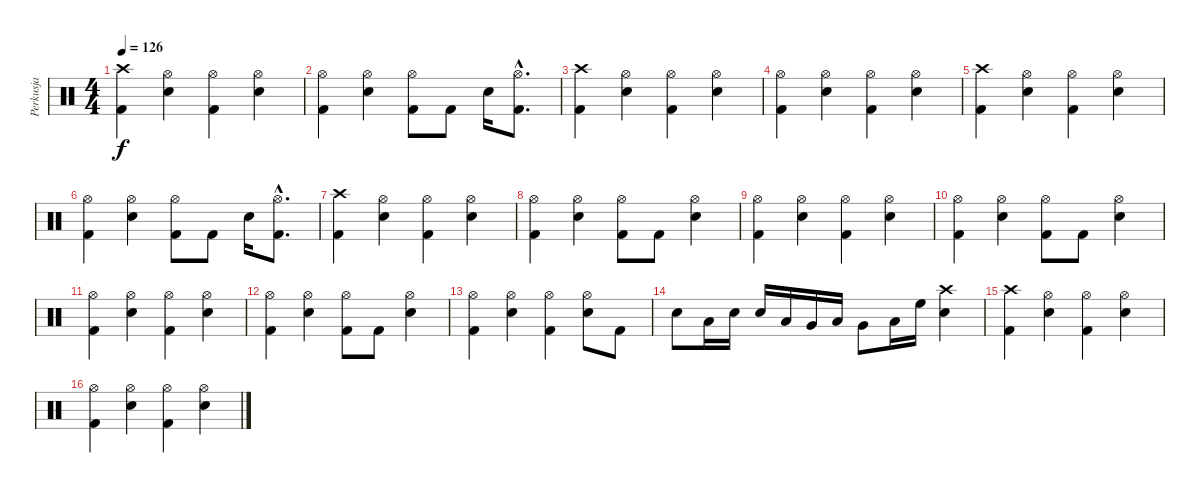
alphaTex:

\track ("Perkusja" "Perkusja") {instrument percussion}
\staff {score}
\articulation defaults
\ts (4 4)
\tempo 126
\clef neutral
\ks c
("Crash high (hit)" "Kick (hit) 2").4{dy f} ("Hi-Hat (open)" "Electric Snare (hit)").4 ("Hi-Hat (open)" "Kick (hit) 2").4 ("Hi-Hat (open)" "Electric Snare (hit)").4 |
("Hi-Hat (open)" "Kick (hit) 2").4 ("Hi-Hat (open)" "Electric Snare (hit)").4 ("Hi-Hat (open)" "Kick (hit) 2").8 "Kick (hit) 2".8 "Electric Snare (hit)".16 ("Hi-Hat (open)"{hac} "Kick (hit) 2"{hac}).8{d} |
("Crash high (hit)" "Kick (hit) 2").4 ("Hi-Hat (open)" "Electric Snare (hit)").4 ("Hi-Hat (open)" "Kick (hit) 2").4 ("Hi-Hat (open)" "Electric Snare (hit)").4 |
("Hi-Hat (open)" "Kick (hit) 2").4 ("Hi-Hat (open)" "Electric Snare (hit)").4 ("Hi-Hat (open)" "Kick (hit) 2").4 ("Hi-Hat (open)" "Electric Snare (hit)").4 |
("Crash high (hit)" "Kick (hit) 2").4 ("Hi-Hat (open)" "Electric Snare (hit)").4 ("Hi-Hat (open)" "Kick (hit) 2").4 ("Hi-Hat (open)" "Electric Snare (hit)").4 |
("Hi-Hat (open)" "Kick (hit) 2").4 ("Hi-Hat (open)" "Electric Snare (hit)").4 ("Hi-Hat (open)" "Kick (hit) 2").8 "Kick (hit) 2".8 "Electric Snare (hit)".16 ("Hi-Hat (open)"{hac} "Kick (hit) 2"{hac}).8{d} |
("Crash high (hit)" "Kick (hit) 2").4 ("Hi-Hat (open)" "Electric Snare (hit)").4 ("Hi-Hat (open)" "Kick (hit) 2").4 ("Hi-Hat (open)" "Electric Snare (hit)").4 |
("Hi-Hat (open)" "Kick (hit) 2").4 ("Hi-Hat (open)" "Electric Snare (hit)").4 ("Hi-Hat (open)" "Kick (hit) 2").8 "Kick (hit) 2".8 ("Hi-Hat (open)" "Electric Snare (hit)").4 |
("Hi-Hat (open)" "Kick (hit) 2").4 ("Hi-Hat (open)" "Electric Snare (hit)").4 ("Hi-Hat (open)" "Kick (hit) 2").4 ("Hi-Hat (open)" "Electric Snare (hit)").4 |
("Hi-Hat (open)" "Kick (hit) 2").4 ("Hi-Hat (open)" "Electric Snare (hit)").4 ("Hi-Hat (open)" "Kick (hit) 2").8 "Kick (hit) 2".8 ("Hi-Hat (open)" "Electric Snare (hit)").4 |
("Hi-Hat (open)" "Kick (hit) 2").4 ("Hi-Hat (open)" "Electric Snare (hit)").4 ("Hi-Hat (open)" "Kick (hit) 2").4 ("Hi-Hat (open)" "Electric Snare (hit)").4 |
("Hi-Hat (open)" "Kick (hit) 2").4 ("Hi-Hat (open)" "Electric Snare (hit)").4 ("Hi-Hat (open)" "Kick (hit) 2").8 "Kick (hit) 2".8 ("Hi-Hat (open)" "Electric Snare (hit)").4 |
("Hi-Hat (open)" "Kick (hit) 2").4 ("Hi-Hat (open)" "Electric Snare (hit)").4 ("Hi-Hat (open)" "Kick (hit) 2").4 ("Hi-Hat (open)" "Electric Snare (hit)").8 "Kick (hit) 2".8 |
"Electric Snare (hit)".8 "Low Tom (hit)".16 "Electric Snare (hit)".16 "Electric Snare (hit)".16 "Low Tom (hit)".16 "Very Low Tom (hit)".16 "Low Floor Tom (hit)".16 "Very Low Tom (hit)".8 "Low Tom (hit)".16 "High Floor Tom (hit)".16 ("Crash high (hit)" "Electric Snare (hit)").4 |
("Crash high (hit)" "Kick (hit) 2").4 ("Hi-Hat (open)" "Electric Snare (hit)").4 ("Hi-Hat (open)" "Kick (hit) 2").4 ("Hi-Hat (open)" "Electric Snare (hit)").4 |
("Hi-Hat (open)" "Kick (hit) 2").4 ("Hi-Hat (open)" "Electric Snare (hit)").4 ("Hi-Hat (open)" "Kick (hit) 2").4 ("Hi-Hat (open)" "Electric Snare (hit)").4
